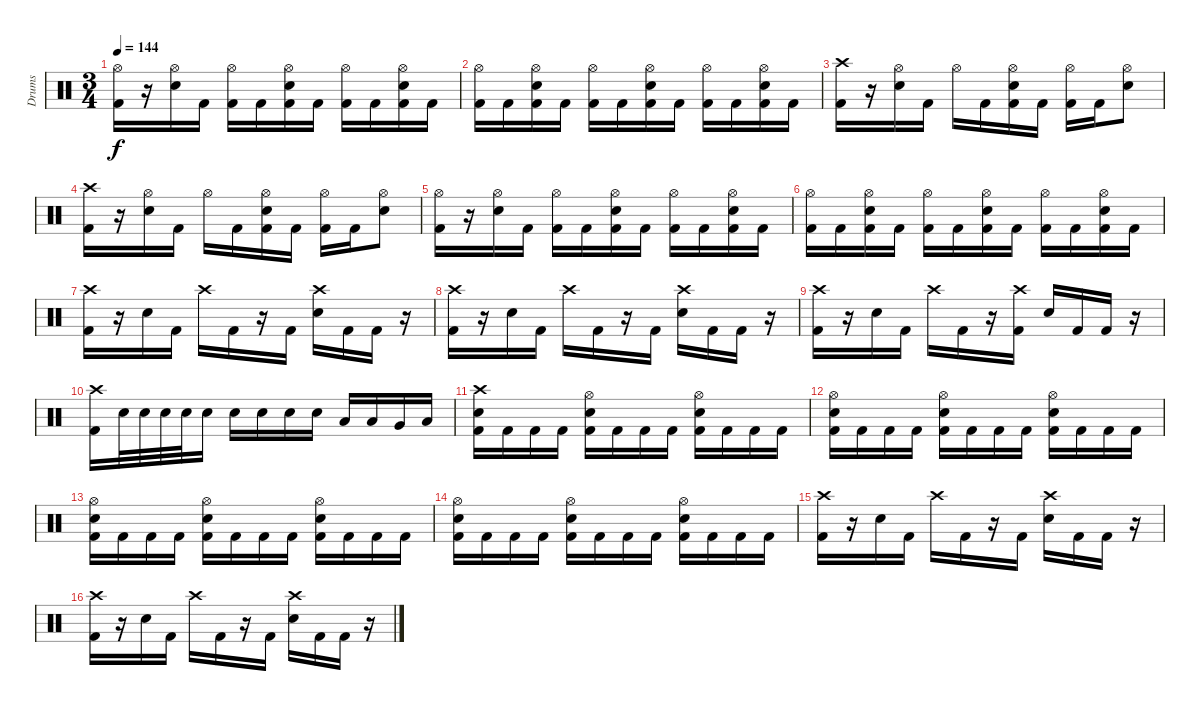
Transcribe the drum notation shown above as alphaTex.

\track ("Drums" "Drums") {instrument percussion}
\staff {score}
\articulation defaults
\ts (3 4)
\tempo 144
\clef neutral
\ks c
("Hi-Hat (open)" "Kick (hit) 2").16{dy f} r.16 ("Hi-Hat (open)" "Snare (hit) 2").16 "Kick (hit) 2".16 ("Hi-Hat (open)" "Kick (hit) 2").16 "Kick (hit) 2".16 ("Hi-Hat (open)" "Snare (hit) 2" "Kick (hit) 2").16 "Kick (hit) 2".16 ("Hi-Hat (open)" "Kick (hit) 2").16 "Kick (hit) 2".16 ("Hi-Hat (open)" "Snare (hit) 2" "Kick (hit) 2").16 "Kick (hit) 2".16 |
("Hi-Hat (open)" "Kick (hit) 2").16 "Kick (hit) 2".16 ("Hi-Hat (open)" "Snare (hit) 2" "Kick (hit) 2").16 "Kick (hit) 2".16 ("Hi-Hat (open)" "Kick (hit) 2").16 "Kick (hit) 2".16 ("Hi-Hat (open)" "Snare (hit) 2" "Kick (hit) 2").16 "Kick (hit) 2".16 ("Hi-Hat (open)" "Kick (hit) 2").16 "Kick (hit) 2".16 ("Hi-Hat (open)" "Snare (hit) 2" "Kick (hit) 2").16 "Kick (hit) 2".16 |
("Crash high (hit)" "Kick (hit) 2").16 r.16 ("Hi-Hat (open)" "Snare (hit) 2").16 "Kick (hit) 2".16 "Hi-Hat (open)".16 "Kick (hit) 2".16 ("Hi-Hat (open)" "Snare (hit) 2" "Kick (hit) 2").16 "Kick (hit) 2".16 ("Hi-Hat (open)" "Kick (hit) 2").16 "Kick (hit) 2".16 ("Hi-Hat (open)" "Snare (hit) 2").8 |
("Crash high (hit)" "Kick (hit) 2").16 r.16 ("Hi-Hat (open)" "Snare (hit) 2").16 "Kick (hit) 2".16 "Hi-Hat (open)".16 "Kick (hit) 2".16 ("Hi-Hat (open)" "Snare (hit) 2" "Kick (hit) 2").16 "Kick (hit) 2".16 ("Hi-Hat (open)" "Kick (hit) 2").16 "Kick (hit) 2".16 ("Hi-Hat (open)" "Snare (hit) 2").8 |
("Hi-Hat (open)" "Kick (hit) 2").16 r.16 ("Hi-Hat (open)" "Snare (hit) 2").16 "Kick (hit) 2".16 ("Hi-Hat (open)" "Kick (hit) 2").16 "Kick (hit) 2".16 ("Hi-Hat (open)" "Snare (hit) 2" "Kick (hit) 2").16 "Kick (hit) 2".16 ("Hi-Hat (open)" "Kick (hit) 2").16 "Kick (hit) 2".16 ("Hi-Hat (open)" "Snare (hit) 2" "Kick (hit) 2").16 "Kick (hit) 2".16 |
("Hi-Hat (open)" "Kick (hit) 2").16 "Kick (hit) 2".16 ("Hi-Hat (open)" "Snare (hit) 2" "Kick (hit) 2").16 "Kick (hit) 2".16 ("Hi-Hat (open)" "Kick (hit) 2").16 "Kick (hit) 2".16 ("Hi-Hat (open)" "Snare (hit) 2" "Kick (hit) 2").16 "Kick (hit) 2".16 ("Hi-Hat (open)" "Kick (hit) 2").16 "Kick (hit) 2".16 ("Hi-Hat (open)" "Snare (hit) 2" "Kick (hit) 2").16 "Kick (hit) 2".16 |
("Crash high (hit)" "Kick (hit) 2").16 r.16 "Snare (hit) 2".16 "Kick (hit) 2".16 "Crash high (hit)".16 "Kick (hit) 2".16 r.16 "Kick (hit) 2".16 ("Crash high (hit)" "Snare (hit) 2").16 "Kick (hit) 2".16 "Kick (hit) 2".16 r.16 |
("Crash high (hit)" "Kick (hit) 2").16 r.16 "Snare (hit) 2".16 "Kick (hit) 2".16 "Crash high (hit)".16 "Kick (hit) 2".16 r.16 "Kick (hit) 2".16 ("Crash high (hit)" "Snare (hit) 2").16 "Kick (hit) 2".16 "Kick (hit) 2".16 r.16 |
("Crash high (hit)" "Kick (hit) 2").16 r.16 "Snare (hit) 2".16 "Kick (hit) 2".16 "Crash high (hit)".16 "Kick (hit) 2".16 r.16 ("Crash high (hit)" "Kick (hit) 2").16 "Snare (hit) 2".16 "Kick (hit) 2".16 "Kick (hit) 2".16 r.16 |
("Crash high (hit)" "Kick (hit) 2").16 "Snare (hit) 2".32 "Snare (hit) 2".32 "Snare (hit) 2".32 "Snare (hit) 2".32 "Snare (hit) 2".16 "Snare (hit) 2".16 "Snare (hit) 2".16 "Snare (hit) 2".16 "Snare (hit) 2".16 "Low Tom (hit)".16 "Low Tom (hit)".16 "Very Low Tom (hit)".16 "Low Floor Tom (hit)".16 |
("Crash high (hit)" "Snare (hit) 2" "Kick (hit) 2").16 "Kick (hit) 2".16 "Kick (hit) 2".16 "Kick (hit) 2".16 ("Hi-Hat (open)" "Snare (hit) 2" "Kick (hit) 2").16 "Kick (hit) 2".16 "Kick (hit) 2".16 "Kick (hit) 2".16 ("Hi-Hat (open)" "Snare (hit) 2" "Kick (hit) 2").16 "Kick (hit) 2".16 "Kick (hit) 2".16 "Kick (hit) 2".16 |
("Hi-Hat (open)" "Snare (hit) 2" "Kick (hit) 2").16 "Kick (hit) 2".16 "Kick (hit) 2".16 "Kick (hit) 2".16 ("Hi-Hat (open)" "Snare (hit) 2" "Kick (hit) 2").16 "Kick (hit) 2".16 "Kick (hit) 2".16 "Kick (hit) 2".16 ("Hi-Hat (open)" "Snare (hit) 2" "Kick (hit) 2").16 "Kick (hit) 2".16 "Kick (hit) 2".16 "Kick (hit) 2".16 |
("Hi-Hat (open)" "Snare (hit) 2" "Kick (hit) 2").16 "Kick (hit) 2".16 "Kick (hit) 2".16 "Kick (hit) 2".16 ("Hi-Hat (open)" "Snare (hit) 2" "Kick (hit) 2").16 "Kick (hit) 2".16 "Kick (hit) 2".16 "Kick (hit) 2".16 ("Hi-Hat (open)" "Snare (hit) 2" "Kick (hit) 2").16 "Kick (hit) 2".16 "Kick (hit) 2".16 "Kick (hit) 2".16 |
("Hi-Hat (open)" "Snare (hit) 2" "Kick (hit) 2").16 "Kick (hit) 2".16 "Kick (hit) 2".16 "Kick (hit) 2".16 ("Hi-Hat (open)" "Snare (hit) 2" "Kick (hit) 2").16 "Kick (hit) 2".16 "Kick (hit) 2".16 "Kick (hit) 2".16 ("Hi-Hat (open)" "Snare (hit) 2" "Kick (hit) 2").16 "Kick (hit) 2".16 "Kick (hit) 2".16 "Kick (hit) 2".16 |
("Crash high (hit)" "Kick (hit) 2").16 r.16 "Snare (hit) 2".16 "Kick (hit) 2".16 "Crash high (hit)".16 "Kick (hit) 2".16 r.16 "Kick (hit) 2".16 ("Crash high (hit)" "Snare (hit) 2").16 "Kick (hit) 2".16 "Kick (hit) 2".16 r.16 |
("Crash high (hit)" "Kick (hit) 2").16 r.16 "Snare (hit) 2".16 "Kick (hit) 2".16 "Crash high (hit)".16 "Kick (hit) 2".16 r.16 "Kick (hit) 2".16 ("Crash high (hit)" "Snare (hit) 2").16 "Kick (hit) 2".16 "Kick (hit) 2".16 r.16
